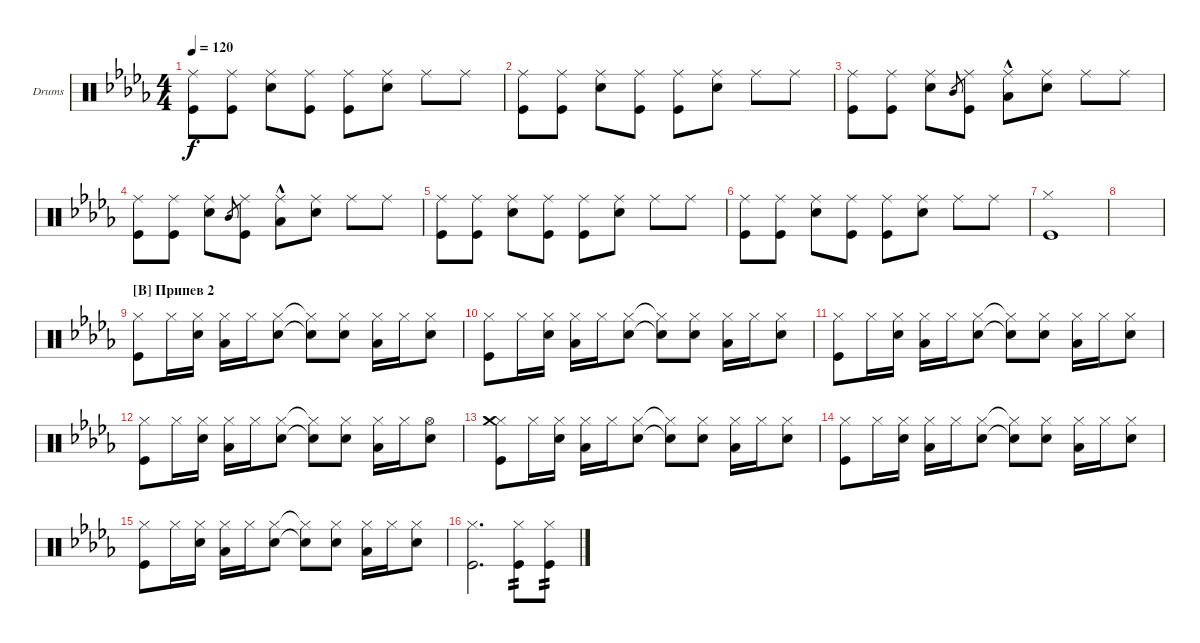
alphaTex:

\defaultSystemsLayout 4
\bracketExtendMode groupsimilarinstruments
\firstSystemTrackNameOrientation horizontal
\otherSystemsTrackNameOrientation horizontal
\track ("Ударные" "Drums") {instrument percussion}
\staff {score}
\articulation defaults
\ts (4 4)
\tempo 120
\clef neutral
\ks db
("Kick (hit)" "Ride (middle)").8{dy f} ("Kick (hit)" "Ride (middle)").8 ("Snare (hit) 2" "Ride (middle)").8 ("Kick (hit)" "Ride (middle)").8 ("Kick (hit)" "Ride (middle)").8 ("Snare (hit) 2" "Ride (middle)").8 "Ride (middle)".8 "Ride (middle)".8 |
("Kick (hit)" "Ride (middle)").8 ("Kick (hit)" "Ride (middle)").8 ("Snare (hit) 2" "Ride (middle)").8 ("Kick (hit)" "Ride (middle)").8 ("Kick (hit)" "Ride (middle)").8 ("Snare (hit) 2" "Ride (middle)").8 "Ride (middle)".8 "Ride (middle)".8 |
("Kick (hit)" "Ride (middle)").8 ("Kick (hit)" "Ride (middle)").8 ("Snare (hit) 2" "Ride (middle)").8 "Mid Tom (hit)".8{gr} ("Kick (hit)" "Ride (middle)").8 ("Ride (middle)" "Low Tom (hit)"{hac}).8 ("Snare (hit) 2" "Ride (middle)").8 "Ride (middle)".8 "Ride (middle)".8 |
("Kick (hit)" "Ride (middle)").8 ("Kick (hit)" "Ride (middle)").8 ("Snare (hit) 2" "Ride (middle)").8 "Mid Tom (hit)".8{gr} ("Kick (hit)" "Ride (middle)").8 ("Ride (middle)" "Low Tom (hit)"{hac}).8 ("Snare (hit) 2" "Ride (middle)").8 "Ride (middle)".8 "Ride (middle)".8 |
("Kick (hit)" "Ride (middle)").8 ("Kick (hit)" "Ride (middle)").8 ("Snare (hit) 2" "Ride (middle)").8 ("Kick (hit)" "Ride (middle)").8 ("Kick (hit)" "Ride (middle)").8 ("Snare (hit) 2" "Ride (middle)").8 "Ride (middle)".8 "Ride (middle)".8 |
("Kick (hit)" "Ride (middle)").8 ("Kick (hit)" "Ride (middle)").8 ("Snare (hit) 2" "Ride (middle)").8 ("Kick (hit)" "Ride (middle)").8 ("Kick (hit)" "Ride (middle)").8 ("Snare (hit) 2" "Ride (middle)").8 "Ride (middle)".8 "Ride (middle)".8 |
("Kick (hit)" "Hi-Hat (closed)").1 |
|
\section ("B" "Припев 2")
("Kick (hit)" "Hi-Hat (closed)").8 "Hi-Hat (closed)".16 ("Hi-Hat (closed)" "Snare (hit) 2").16 ("Hi-Hat (closed)" "Low Tom (hit)").16 "Hi-Hat (closed)".16 ("Hi-Hat (closed)" "Snare (hit) 2").8 ("Hi-Hat (closed)"{t} "Snare (hit) 2"{t}).8 ("Hi-Hat (closed)" "Snare (hit) 2").8 ("Hi-Hat (closed)" "Low Tom (hit)").16 "Hi-Hat (closed)".16 ("Hi-Hat (closed)" "Snare (hit) 2").8 |
("Kick (hit)" "Hi-Hat (closed)").8 "Hi-Hat (closed)".16 ("Hi-Hat (closed)" "Snare (hit) 2").16 ("Hi-Hat (closed)" "Low Tom (hit)").16 "Hi-Hat (closed)".16 ("Hi-Hat (closed)" "Snare (hit) 2").8 ("Hi-Hat (closed)"{t} "Snare (hit) 2"{t}).8 ("Hi-Hat (closed)" "Snare (hit) 2").8 ("Hi-Hat (closed)" "Low Tom (hit)").16 "Hi-Hat (closed)".16 ("Hi-Hat (closed)" "Snare (hit) 2").8 |
("Kick (hit)" "Hi-Hat (closed)").8 "Hi-Hat (closed)".16 ("Hi-Hat (closed)" "Snare (hit) 2").16 ("Hi-Hat (closed)" "Low Tom (hit)").16 "Hi-Hat (closed)".16 ("Hi-Hat (closed)" "Snare (hit) 2").8 ("Hi-Hat (closed)"{t} "Snare (hit) 2"{t}).8 ("Hi-Hat (closed)" "Snare (hit) 2").8 ("Hi-Hat (closed)" "Low Tom (hit)").16 "Hi-Hat (closed)".16 ("Hi-Hat (closed)" "Snare (hit) 2").8 |
("Kick (hit)" "Hi-Hat (closed)").8 "Hi-Hat (closed)".16 ("Hi-Hat (closed)" "Snare (hit) 2").16 ("Hi-Hat (closed)" "Low Tom (hit)").16 "Hi-Hat (closed)".16 ("Hi-Hat (closed)" "Snare (hit) 2").8 ("Hi-Hat (closed)"{t} "Snare (hit) 2"{t}).8 ("Hi-Hat (closed)" "Snare (hit) 2").8 ("Hi-Hat (closed)" "Low Tom (hit)").16 "Hi-Hat (closed)".16 ("Hi-Hat (open)" "Snare (hit) 2").8 |
("Kick (hit)" "Hi-Hat (closed)" "Crash medium (hit)").8 "Hi-Hat (closed)".16 ("Hi-Hat (closed)" "Snare (hit) 2").16 ("Hi-Hat (closed)" "Low Tom (hit)").16 "Hi-Hat (closed)".16 ("Hi-Hat (closed)" "Snare (hit) 2").8 ("Hi-Hat (closed)"{t} "Snare (hit) 2"{t}).8 ("Hi-Hat (closed)" "Snare (hit) 2").8 ("Hi-Hat (closed)" "Low Tom (hit)").16 "Hi-Hat (closed)".16 ("Hi-Hat (closed)" "Snare (hit) 2").8 |
("Kick (hit)" "Hi-Hat (closed)").8 "Hi-Hat (closed)".16 ("Hi-Hat (closed)" "Snare (hit) 2").16 ("Hi-Hat (closed)" "Low Tom (hit)").16 "Hi-Hat (closed)".16 ("Hi-Hat (closed)" "Snare (hit) 2").8 ("Hi-Hat (closed)"{t} "Snare (hit) 2"{t}).8 ("Hi-Hat (closed)" "Snare (hit) 2").8 ("Hi-Hat (closed)" "Low Tom (hit)").16 "Hi-Hat (closed)".16 ("Hi-Hat (closed)" "Snare (hit) 2").8 |
("Kick (hit)" "Hi-Hat (closed)").8 "Hi-Hat (closed)".16 ("Hi-Hat (closed)" "Snare (hit) 2").16 ("Hi-Hat (closed)" "Low Tom (hit)").16 "Hi-Hat (closed)".16 ("Hi-Hat (closed)" "Snare (hit) 2").8 ("Hi-Hat (closed)"{t} "Snare (hit) 2"{t}).8 ("Hi-Hat (closed)" "Snare (hit) 2").8 ("Hi-Hat (closed)" "Low Tom (hit)").16 "Hi-Hat (closed)".16 ("Hi-Hat (closed)" "Snare (hit) 2").8 |
("Kick (hit)" "Hi-Hat (closed)").2{d} ("Hi-Hat (closed)" "Kick (hit)").8{tp 2} ("Hi-Hat (closed)" "Kick (hit)").8{tp 2}
